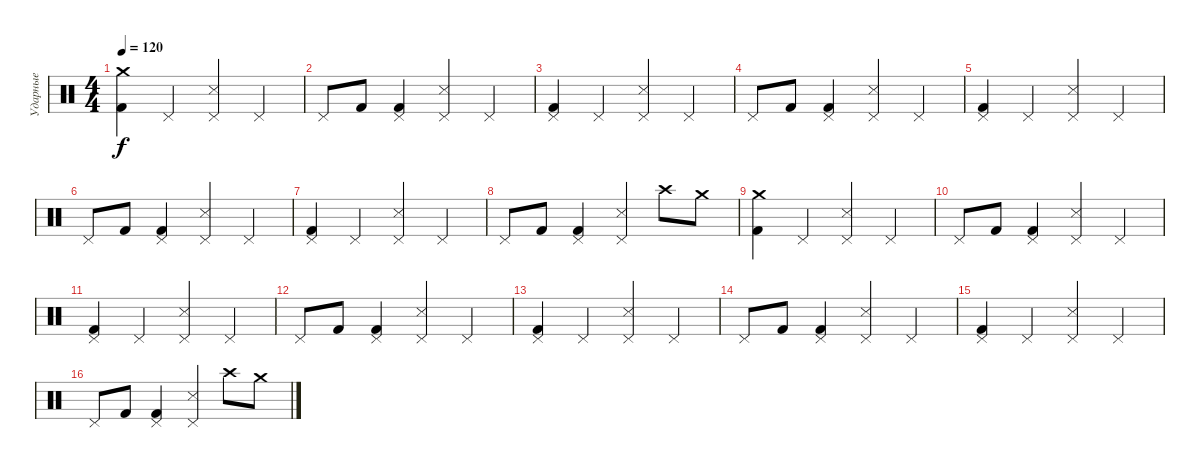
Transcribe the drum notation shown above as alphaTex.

\track ("Ударные" "Ударные") {instrument percussion}
\staff {score}
\articulation defaults
\ts (4 4)
\tempo 120
\clef neutral
\ks c
("Crash medium (hit)" "Kick (hit) 2").4{dy f} "Pedal Hi-Hat (hit)".4 ("Pedal Hi-Hat (hit)" "Snare (side stick) 3").4 "Pedal Hi-Hat (hit)".4 |
"Pedal Hi-Hat (hit)".8 "Kick (hit) 2".8 ("Pedal Hi-Hat (hit)" "Kick (hit) 2").4 ("Pedal Hi-Hat (hit)" "Snare (side stick) 3").4 "Pedal Hi-Hat (hit)".4 |
("Pedal Hi-Hat (hit)" "Kick (hit) 2").4 "Pedal Hi-Hat (hit)".4 ("Pedal Hi-Hat (hit)" "Snare (side stick) 3").4 "Pedal Hi-Hat (hit)".4 |
"Pedal Hi-Hat (hit)".8 "Kick (hit) 2".8 ("Pedal Hi-Hat (hit)" "Kick (hit) 2").4 ("Pedal Hi-Hat (hit)" "Snare (side stick) 3").4 "Pedal Hi-Hat (hit)".4 |
("Pedal Hi-Hat (hit)" "Kick (hit) 2").4 "Pedal Hi-Hat (hit)".4 ("Pedal Hi-Hat (hit)" "Snare (side stick) 3").4 "Pedal Hi-Hat (hit)".4 |
"Pedal Hi-Hat (hit)".8 "Kick (hit) 2".8 ("Pedal Hi-Hat (hit)" "Kick (hit) 2").4 ("Pedal Hi-Hat (hit)" "Snare (side stick) 3").4 "Pedal Hi-Hat (hit)".4 |
("Pedal Hi-Hat (hit)" "Kick (hit) 2").4 "Pedal Hi-Hat (hit)".4 ("Pedal Hi-Hat (hit)" "Snare (side stick) 3").4 "Pedal Hi-Hat (hit)".4 |
"Pedal Hi-Hat (hit)".8 "Kick (hit) 2".8 ("Pedal Hi-Hat (hit)" "Kick (hit) 2").4 ("Pedal Hi-Hat (hit)" "Snare (side stick) 3").4 "Crash high (hit)".8 "Crash medium (hit)".8 |
("Crash medium (hit)" "Kick (hit) 2").4 "Pedal Hi-Hat (hit)".4 ("Pedal Hi-Hat (hit)" "Snare (side stick) 3").4 "Pedal Hi-Hat (hit)".4 |
"Pedal Hi-Hat (hit)".8 "Kick (hit) 2".8 ("Pedal Hi-Hat (hit)" "Kick (hit) 2").4 ("Pedal Hi-Hat (hit)" "Snare (side stick) 3").4 "Pedal Hi-Hat (hit)".4 |
("Pedal Hi-Hat (hit)" "Kick (hit) 2").4 "Pedal Hi-Hat (hit)".4 ("Pedal Hi-Hat (hit)" "Snare (side stick) 3").4 "Pedal Hi-Hat (hit)".4 |
"Pedal Hi-Hat (hit)".8 "Kick (hit) 2".8 ("Pedal Hi-Hat (hit)" "Kick (hit) 2").4 ("Pedal Hi-Hat (hit)" "Snare (side stick) 3").4 "Pedal Hi-Hat (hit)".4 |
("Pedal Hi-Hat (hit)" "Kick (hit) 2").4 "Pedal Hi-Hat (hit)".4 ("Pedal Hi-Hat (hit)" "Snare (side stick) 3").4 "Pedal Hi-Hat (hit)".4 |
"Pedal Hi-Hat (hit)".8 "Kick (hit) 2".8 ("Pedal Hi-Hat (hit)" "Kick (hit) 2").4 ("Pedal Hi-Hat (hit)" "Snare (side stick) 3").4 "Pedal Hi-Hat (hit)".4 |
("Pedal Hi-Hat (hit)" "Kick (hit) 2").4 "Pedal Hi-Hat (hit)".4 ("Pedal Hi-Hat (hit)" "Snare (side stick) 3").4 "Pedal Hi-Hat (hit)".4 |
"Pedal Hi-Hat (hit)".8 "Kick (hit) 2".8 ("Pedal Hi-Hat (hit)" "Kick (hit) 2").4 ("Pedal Hi-Hat (hit)" "Snare (side stick) 3").4 "Crash high (hit)".8 "Crash medium (hit)".8
